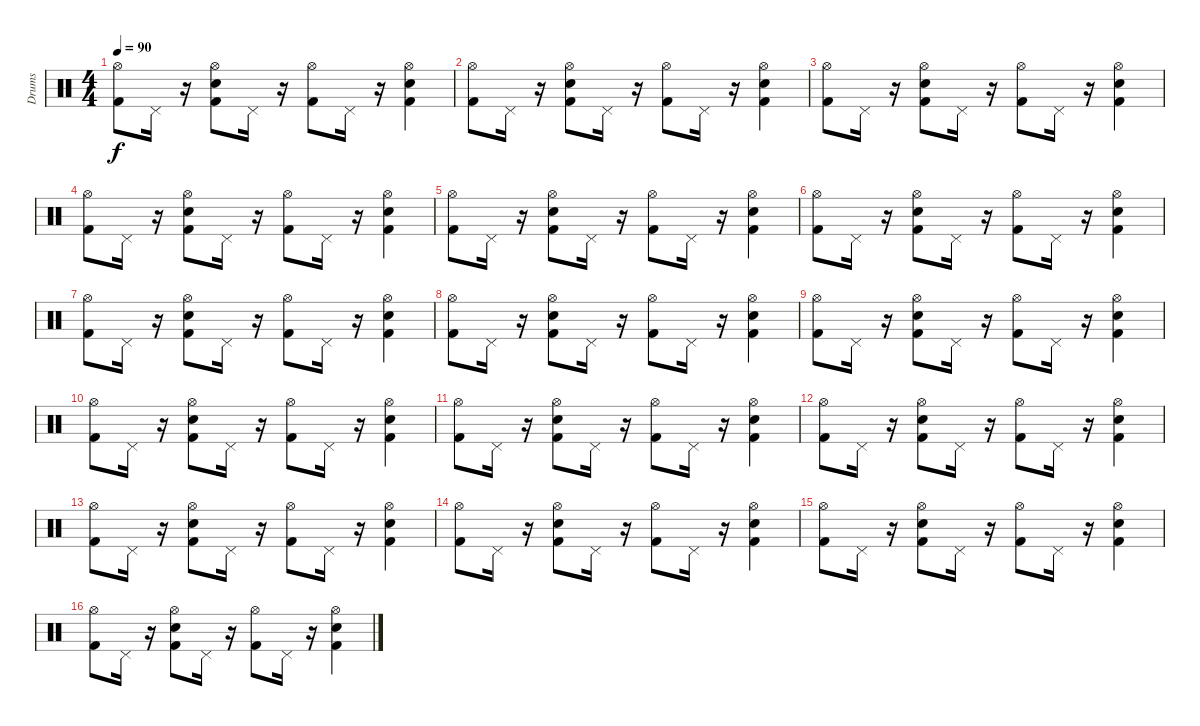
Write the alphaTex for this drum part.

\track ("Drums" "Drums") {instrument percussion}
\staff {score}
\articulation defaults
\ts (4 4)
\tempo 90
\clef neutral
\ks c
("Hi-Hat (open)" "Kick (hit) 2").8{dy f} "Pedal Hi-Hat (hit)".16 r.16 ("Hi-Hat (open)" "Electric Snare (hit)" "Kick (hit) 2").8 "Pedal Hi-Hat (hit)".16 r.16 ("Hi-Hat (open)" "Kick (hit) 2").8 "Pedal Hi-Hat (hit)".16 r.16 ("Hi-Hat (open)" "Electric Snare (hit)" "Kick (hit) 2").4 |
("Hi-Hat (open)" "Kick (hit) 2").8 "Pedal Hi-Hat (hit)".16 r.16 ("Hi-Hat (open)" "Electric Snare (hit)" "Kick (hit) 2").8 "Pedal Hi-Hat (hit)".16 r.16 ("Hi-Hat (open)" "Kick (hit) 2").8 "Pedal Hi-Hat (hit)".16 r.16 ("Hi-Hat (open)" "Electric Snare (hit)" "Kick (hit) 2").4 |
("Hi-Hat (open)" "Kick (hit) 2").8 "Pedal Hi-Hat (hit)".16 r.16 ("Hi-Hat (open)" "Electric Snare (hit)" "Kick (hit) 2").8 "Pedal Hi-Hat (hit)".16 r.16 ("Hi-Hat (open)" "Kick (hit) 2").8 "Pedal Hi-Hat (hit)".16 r.16 ("Hi-Hat (open)" "Electric Snare (hit)" "Kick (hit) 2").4 |
("Hi-Hat (open)" "Kick (hit) 2").8 "Pedal Hi-Hat (hit)".16 r.16 ("Hi-Hat (open)" "Electric Snare (hit)" "Kick (hit) 2").8 "Pedal Hi-Hat (hit)".16 r.16 ("Hi-Hat (open)" "Kick (hit) 2").8 "Pedal Hi-Hat (hit)".16 r.16 ("Hi-Hat (open)" "Electric Snare (hit)" "Kick (hit) 2").4 |
("Hi-Hat (open)" "Kick (hit) 2").8 "Pedal Hi-Hat (hit)".16 r.16 ("Hi-Hat (open)" "Electric Snare (hit)" "Kick (hit) 2").8 "Pedal Hi-Hat (hit)".16 r.16 ("Hi-Hat (open)" "Kick (hit) 2").8 "Pedal Hi-Hat (hit)".16 r.16 ("Hi-Hat (open)" "Electric Snare (hit)" "Kick (hit) 2").4 |
("Hi-Hat (open)" "Kick (hit) 2").8 "Pedal Hi-Hat (hit)".16 r.16 ("Hi-Hat (open)" "Electric Snare (hit)" "Kick (hit) 2").8 "Pedal Hi-Hat (hit)".16 r.16 ("Hi-Hat (open)" "Kick (hit) 2").8 "Pedal Hi-Hat (hit)".16 r.16 ("Hi-Hat (open)" "Electric Snare (hit)" "Kick (hit) 2").4 |
("Hi-Hat (open)" "Kick (hit) 2").8 "Pedal Hi-Hat (hit)".16 r.16 ("Hi-Hat (open)" "Electric Snare (hit)" "Kick (hit) 2").8 "Pedal Hi-Hat (hit)".16 r.16 ("Hi-Hat (open)" "Kick (hit) 2").8 "Pedal Hi-Hat (hit)".16 r.16 ("Hi-Hat (open)" "Electric Snare (hit)" "Kick (hit) 2").4 |
("Hi-Hat (open)" "Kick (hit) 2").8 "Pedal Hi-Hat (hit)".16 r.16 ("Hi-Hat (open)" "Electric Snare (hit)" "Kick (hit) 2").8 "Pedal Hi-Hat (hit)".16 r.16 ("Hi-Hat (open)" "Kick (hit) 2").8 "Pedal Hi-Hat (hit)".16 r.16 ("Hi-Hat (open)" "Electric Snare (hit)" "Kick (hit) 2").4 |
("Hi-Hat (open)" "Kick (hit) 2").8 "Pedal Hi-Hat (hit)".16 r.16 ("Hi-Hat (open)" "Electric Snare (hit)" "Kick (hit) 2").8 "Pedal Hi-Hat (hit)".16 r.16 ("Hi-Hat (open)" "Kick (hit) 2").8 "Pedal Hi-Hat (hit)".16 r.16 ("Hi-Hat (open)" "Electric Snare (hit)" "Kick (hit) 2").4 |
("Hi-Hat (open)" "Kick (hit) 2").8 "Pedal Hi-Hat (hit)".16 r.16 ("Hi-Hat (open)" "Electric Snare (hit)" "Kick (hit) 2").8 "Pedal Hi-Hat (hit)".16 r.16 ("Hi-Hat (open)" "Kick (hit) 2").8 "Pedal Hi-Hat (hit)".16 r.16 ("Hi-Hat (open)" "Electric Snare (hit)" "Kick (hit) 2").4 |
("Hi-Hat (open)" "Kick (hit) 2").8 "Pedal Hi-Hat (hit)".16 r.16 ("Hi-Hat (open)" "Electric Snare (hit)" "Kick (hit) 2").8 "Pedal Hi-Hat (hit)".16 r.16 ("Hi-Hat (open)" "Kick (hit) 2").8 "Pedal Hi-Hat (hit)".16 r.16 ("Hi-Hat (open)" "Electric Snare (hit)" "Kick (hit) 2").4 |
("Hi-Hat (open)" "Kick (hit) 2").8 "Pedal Hi-Hat (hit)".16 r.16 ("Hi-Hat (open)" "Electric Snare (hit)" "Kick (hit) 2").8 "Pedal Hi-Hat (hit)".16 r.16 ("Hi-Hat (open)" "Kick (hit) 2").8 "Pedal Hi-Hat (hit)".16 r.16 ("Hi-Hat (open)" "Electric Snare (hit)" "Kick (hit) 2").4 |
("Hi-Hat (open)" "Kick (hit) 2").8 "Pedal Hi-Hat (hit)".16 r.16 ("Hi-Hat (open)" "Electric Snare (hit)" "Kick (hit) 2").8 "Pedal Hi-Hat (hit)".16 r.16 ("Hi-Hat (open)" "Kick (hit) 2").8 "Pedal Hi-Hat (hit)".16 r.16 ("Hi-Hat (open)" "Electric Snare (hit)" "Kick (hit) 2").4 |
("Hi-Hat (open)" "Kick (hit) 2").8 "Pedal Hi-Hat (hit)".16 r.16 ("Hi-Hat (open)" "Electric Snare (hit)" "Kick (hit) 2").8 "Pedal Hi-Hat (hit)".16 r.16 ("Hi-Hat (open)" "Kick (hit) 2").8 "Pedal Hi-Hat (hit)".16 r.16 ("Hi-Hat (open)" "Electric Snare (hit)" "Kick (hit) 2").4 |
("Hi-Hat (open)" "Kick (hit) 2").8 "Pedal Hi-Hat (hit)".16 r.16 ("Hi-Hat (open)" "Electric Snare (hit)" "Kick (hit) 2").8 "Pedal Hi-Hat (hit)".16 r.16 ("Hi-Hat (open)" "Kick (hit) 2").8 "Pedal Hi-Hat (hit)".16 r.16 ("Hi-Hat (open)" "Electric Snare (hit)" "Kick (hit) 2").4 |
("Hi-Hat (open)" "Kick (hit) 2").8 "Pedal Hi-Hat (hit)".16 r.16 ("Hi-Hat (open)" "Electric Snare (hit)" "Kick (hit) 2").8 "Pedal Hi-Hat (hit)".16 r.16 ("Hi-Hat (open)" "Kick (hit) 2").8 "Pedal Hi-Hat (hit)".16 r.16 ("Hi-Hat (open)" "Electric Snare (hit)" "Kick (hit) 2").4
